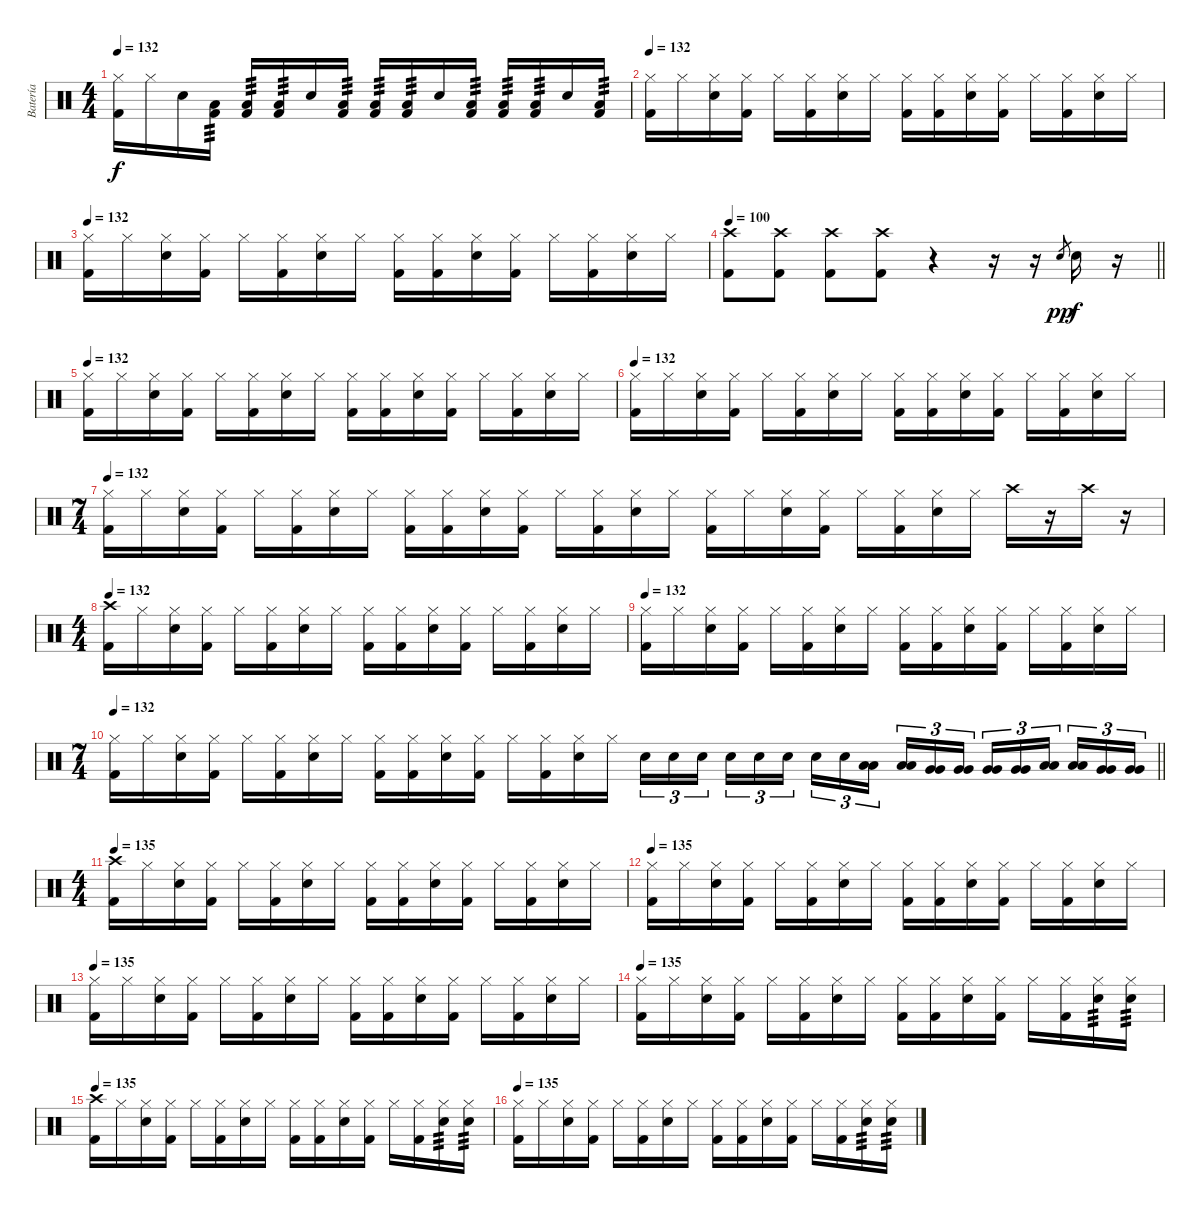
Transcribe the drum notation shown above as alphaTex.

\track ("Batería" "Batería") {instrument percussion}
\staff {score}
\articulation defaults
\ts (4 4)
\tempo 132
\clef neutral
\ks c
("Hi-Hat (closed)" "Kick (hit) 2").16{dy f} "Hi-Hat (closed)".16 "Snare (hit) 2".16 ("Low Tom (hit)" "Kick (hit) 2").16{tp 3} ("Low Tom (hit)" "Kick (hit) 2").16{tp 3} ("Low Tom (hit)" "Kick (hit) 2").16{tp 3} "Snare (hit) 2".16 ("Low Tom (hit)" "Kick (hit) 2").16{tp 3} ("Low Tom (hit)" "Kick (hit) 2").16{tp 3} ("Low Tom (hit)" "Kick (hit) 2").16{tp 3} "Snare (hit) 2".16 ("Low Tom (hit)" "Kick (hit) 2").16{tp 3} ("Low Tom (hit)" "Kick (hit) 2").16{tp 3} ("Low Tom (hit)" "Kick (hit) 2").16{tp 3} "Snare (hit) 2".16 ("Low Tom (hit)" "Kick (hit) 2").16{tp 3} |
\tempo 132
("Hi-Hat (closed)" "Kick (hit) 2").16 "Hi-Hat (closed)".16 ("Hi-Hat (closed)" "Snare (hit) 2").16 ("Hi-Hat (closed)" "Kick (hit) 2").16 "Hi-Hat (closed)".16 ("Hi-Hat (closed)" "Kick (hit) 2").16 ("Hi-Hat (closed)" "Snare (hit) 2").16 "Hi-Hat (closed)".16 ("Hi-Hat (closed)" "Kick (hit) 2").16 ("Hi-Hat (closed)" "Kick (hit) 2").16 ("Hi-Hat (closed)" "Snare (hit) 2").16 ("Hi-Hat (closed)" "Kick (hit) 2").16 "Hi-Hat (closed)".16 ("Hi-Hat (closed)" "Kick (hit) 2").16 ("Hi-Hat (closed)" "Snare (hit) 2").16 "Hi-Hat (closed)".16 |
\tempo 132
("Hi-Hat (closed)" "Kick (hit) 2").16 "Hi-Hat (closed)".16 ("Hi-Hat (closed)" "Snare (hit) 2").16 ("Hi-Hat (closed)" "Kick (hit) 2").16 "Hi-Hat (closed)".16 ("Hi-Hat (closed)" "Kick (hit) 2").16 ("Hi-Hat (closed)" "Snare (hit) 2").16 "Hi-Hat (closed)".16 ("Hi-Hat (closed)" "Kick (hit) 2").16 ("Hi-Hat (closed)" "Kick (hit) 2").16 ("Hi-Hat (closed)" "Snare (hit) 2").16 ("Hi-Hat (closed)" "Kick (hit) 2").16 "Hi-Hat (closed)".16 ("Hi-Hat (closed)" "Kick (hit) 2").16 ("Hi-Hat (closed)" "Snare (hit) 2").16 "Hi-Hat (closed)".16 |
\tempo 100
\barLineRight lightlight
("Crash high (hit)" "Kick (hit) 2").8 ("Crash high (hit)" "Kick (hit) 2").8 ("Crash high (hit)" "Kick (hit) 2").8 ("Crash high (hit)" "Kick (hit) 2").8 r.4 r.16 r.16 "Snare (hit) 2".8{gr dy pp} "Snare (hit) 2".16{dy f} r.16 |
\tempo 132
("Hi-Hat (closed)" "Kick (hit) 2").16 "Hi-Hat (closed)".16 ("Hi-Hat (closed)" "Snare (hit) 2").16 ("Hi-Hat (closed)" "Kick (hit) 2").16 "Hi-Hat (closed)".16 ("Hi-Hat (closed)" "Kick (hit) 2").16 ("Hi-Hat (closed)" "Snare (hit) 2").16 "Hi-Hat (closed)".16 ("Hi-Hat (closed)" "Kick (hit) 2").16 ("Hi-Hat (closed)" "Kick (hit) 2").16 ("Hi-Hat (closed)" "Snare (hit) 2").16 ("Hi-Hat (closed)" "Kick (hit) 2").16 "Hi-Hat (closed)".16 ("Hi-Hat (closed)" "Kick (hit) 2").16 ("Hi-Hat (closed)" "Snare (hit) 2").16 "Hi-Hat (closed)".16 |
\tempo 132
("Hi-Hat (closed)" "Kick (hit) 2").16 "Hi-Hat (closed)".16 ("Hi-Hat (closed)" "Snare (hit) 2").16 ("Hi-Hat (closed)" "Kick (hit) 2").16 "Hi-Hat (closed)".16 ("Hi-Hat (closed)" "Kick (hit) 2").16 ("Hi-Hat (closed)" "Snare (hit) 2").16 "Hi-Hat (closed)".16 ("Hi-Hat (closed)" "Kick (hit) 2").16 ("Hi-Hat (closed)" "Kick (hit) 2").16 ("Hi-Hat (closed)" "Snare (hit) 2").16 ("Hi-Hat (closed)" "Kick (hit) 2").16 "Hi-Hat (closed)".16 ("Hi-Hat (closed)" "Kick (hit) 2").16 ("Hi-Hat (closed)" "Snare (hit) 2").16 "Hi-Hat (closed)".16 |
\ts (7 4)
\tempo 132
("Hi-Hat (closed)" "Kick (hit) 2").16 "Hi-Hat (closed)".16 ("Hi-Hat (closed)" "Snare (hit) 2").16 ("Hi-Hat (closed)" "Kick (hit) 2").16 "Hi-Hat (closed)".16 ("Hi-Hat (closed)" "Kick (hit) 2").16 ("Hi-Hat (closed)" "Snare (hit) 2").16 "Hi-Hat (closed)".16 ("Hi-Hat (closed)" "Kick (hit) 2").16 ("Hi-Hat (closed)" "Kick (hit) 2").16 ("Hi-Hat (closed)" "Snare (hit) 2").16 ("Hi-Hat (closed)" "Kick (hit) 2").16 "Hi-Hat (closed)".16 ("Hi-Hat (closed)" "Kick (hit) 2").16 ("Hi-Hat (closed)" "Snare (hit) 2").16 "Hi-Hat (closed)".16 ("Hi-Hat (closed)" "Kick (hit) 2").16 "Hi-Hat (closed)".16 ("Hi-Hat (closed)" "Snare (hit) 2").16 ("Hi-Hat (closed)" "Kick (hit) 2").16 "Hi-Hat (closed)".16 ("Hi-Hat (closed)" "Kick (hit) 2").16 ("Hi-Hat (closed)" "Snare (hit) 2").16 "Hi-Hat (closed)".16 "Crash high (hit)".16 r.16 "Crash high (hit)".16 r.16 |
\ts (4 4)
\tempo 132
("Crash high (hit)" "Kick (hit) 2").16 "Hi-Hat (closed)".16 ("Hi-Hat (closed)" "Snare (hit) 2").16 ("Hi-Hat (closed)" "Kick (hit) 2").16 "Hi-Hat (closed)".16 ("Hi-Hat (closed)" "Kick (hit) 2").16 ("Hi-Hat (closed)" "Snare (hit) 2").16 "Hi-Hat (closed)".16 ("Hi-Hat (closed)" "Kick (hit) 2").16 ("Hi-Hat (closed)" "Kick (hit) 2").16 ("Hi-Hat (closed)" "Snare (hit) 2").16 ("Hi-Hat (closed)" "Kick (hit) 2").16 "Hi-Hat (closed)".16 ("Hi-Hat (closed)" "Kick (hit) 2").16 ("Hi-Hat (closed)" "Snare (hit) 2").16 "Hi-Hat (closed)".16 |
\tempo 132
("Hi-Hat (closed)" "Kick (hit) 2").16 "Hi-Hat (closed)".16 ("Hi-Hat (closed)" "Snare (hit) 2").16 ("Hi-Hat (closed)" "Kick (hit) 2").16 "Hi-Hat (closed)".16 ("Hi-Hat (closed)" "Kick (hit) 2").16 ("Hi-Hat (closed)" "Snare (hit) 2").16 "Hi-Hat (closed)".16 ("Hi-Hat (closed)" "Kick (hit) 2").16 ("Hi-Hat (closed)" "Kick (hit) 2").16 ("Hi-Hat (closed)" "Snare (hit) 2").16 ("Hi-Hat (closed)" "Kick (hit) 2").16 "Hi-Hat (closed)".16 ("Hi-Hat (closed)" "Kick (hit) 2").16 ("Hi-Hat (closed)" "Snare (hit) 2").16 "Hi-Hat (closed)".16 |
\ts (7 4)
\tempo 132
\barLineRight lightlight
("Hi-Hat (closed)" "Kick (hit) 2").16 "Hi-Hat (closed)".16 ("Hi-Hat (closed)" "Snare (hit) 2").16 ("Hi-Hat (closed)" "Kick (hit) 2").16 "Hi-Hat (closed)".16 ("Hi-Hat (closed)" "Kick (hit) 2").16 ("Hi-Hat (closed)" "Snare (hit) 2").16 "Hi-Hat (closed)".16 ("Hi-Hat (closed)" "Kick (hit) 2").16 ("Hi-Hat (closed)" "Kick (hit) 2").16 ("Hi-Hat (closed)" "Snare (hit) 2").16 ("Hi-Hat (closed)" "Kick (hit) 2").16 "Hi-Hat (closed)".16 ("Hi-Hat (closed)" "Kick (hit) 2").16 ("Hi-Hat (closed)" "Snare (hit) 2").16 "Hi-Hat (closed)".16 "Snare (hit) 2".16{tu (3 2)} "Snare (hit) 2".16{tu (3 2)} "Snare (hit) 2".16{tu (3 2)} "Snare (hit) 2".16{tu (3 2)} "Snare (hit) 2".16{tu (3 2)} "Snare (hit) 2".16{tu (3 2)} "Snare (hit) 2".16{tu (3 2)} "Snare (hit) 2".16{tu (3 2)} ("Low Tom (hit)" "Low Tom (hit)").16{tu (3 2)} ("Low Tom (hit)" "Low Tom (hit)").16{tu (3 2)} ("Very Low Tom (hit)" "Very Low Tom (hit)").16{tu (3 2)} ("Very Low Tom (hit)" "Very Low Tom (hit)").16{tu (3 2)} ("Very Low Tom (hit)" "Very Low Tom (hit)").16{tu (3 2)} ("Very Low Tom (hit)" "Very Low Tom (hit)").16{tu (3 2)} ("Low Tom (hit)" "Low Tom (hit)").16{tu (3 2)} ("Low Tom (hit)" "Low Tom (hit)").16{tu (3 2)} ("Very Low Tom (hit)" "Very Low Tom (hit)").16{tu (3 2)} ("Very Low Tom (hit)" "Very Low Tom (hit)").16{tu (3 2)} |
\ts (4 4)
\tempo 135
("Crash high (hit)" "Kick (hit) 2").16 "Hi-Hat (closed)".16 ("Hi-Hat (closed)" "Snare (hit) 2").16 ("Hi-Hat (closed)" "Kick (hit) 2").16 "Hi-Hat (closed)".16 ("Hi-Hat (closed)" "Kick (hit) 2").16 ("Hi-Hat (closed)" "Snare (hit) 2").16 "Hi-Hat (closed)".16 ("Hi-Hat (closed)" "Kick (hit) 2").16 ("Hi-Hat (closed)" "Kick (hit) 2").16 ("Hi-Hat (closed)" "Snare (hit) 2").16 ("Hi-Hat (closed)" "Kick (hit) 2").16 "Hi-Hat (closed)".16 ("Hi-Hat (closed)" "Kick (hit) 2").16 ("Hi-Hat (closed)" "Snare (hit) 2").16 "Hi-Hat (closed)".16 |
\tempo 135
("Hi-Hat (closed)" "Kick (hit) 2").16 "Hi-Hat (closed)".16 ("Hi-Hat (closed)" "Snare (hit) 2").16 ("Hi-Hat (closed)" "Kick (hit) 2").16 "Hi-Hat (closed)".16 ("Hi-Hat (closed)" "Kick (hit) 2").16 ("Hi-Hat (closed)" "Snare (hit) 2").16 "Hi-Hat (closed)".16 ("Hi-Hat (closed)" "Kick (hit) 2").16 ("Hi-Hat (closed)" "Kick (hit) 2").16 ("Hi-Hat (closed)" "Snare (hit) 2").16 ("Hi-Hat (closed)" "Kick (hit) 2").16 "Hi-Hat (closed)".16 ("Hi-Hat (closed)" "Kick (hit) 2").16 ("Hi-Hat (closed)" "Snare (hit) 2").16 "Hi-Hat (closed)".16 |
\tempo 135
("Hi-Hat (closed)" "Kick (hit) 2").16 "Hi-Hat (closed)".16 ("Hi-Hat (closed)" "Snare (hit) 2").16 ("Hi-Hat (closed)" "Kick (hit) 2").16 "Hi-Hat (closed)".16 ("Hi-Hat (closed)" "Kick (hit) 2").16 ("Hi-Hat (closed)" "Snare (hit) 2").16 "Hi-Hat (closed)".16 ("Hi-Hat (closed)" "Kick (hit) 2").16 ("Hi-Hat (closed)" "Kick (hit) 2").16 ("Hi-Hat (closed)" "Snare (hit) 2").16 ("Hi-Hat (closed)" "Kick (hit) 2").16 "Hi-Hat (closed)".16 ("Hi-Hat (closed)" "Kick (hit) 2").16 ("Hi-Hat (closed)" "Snare (hit) 2").16 "Hi-Hat (closed)".16 |
\tempo 135
("Hi-Hat (closed)" "Kick (hit) 2").16 "Hi-Hat (closed)".16 ("Hi-Hat (closed)" "Snare (hit) 2").16 ("Hi-Hat (closed)" "Kick (hit) 2").16 "Hi-Hat (closed)".16 ("Hi-Hat (closed)" "Kick (hit) 2").16 ("Hi-Hat (closed)" "Snare (hit) 2").16 "Hi-Hat (closed)".16 ("Hi-Hat (closed)" "Kick (hit) 2").16 ("Hi-Hat (closed)" "Kick (hit) 2").16 ("Hi-Hat (closed)" "Snare (hit) 2").16 ("Hi-Hat (closed)" "Kick (hit) 2").16 "Hi-Hat (closed)".16 ("Hi-Hat (closed)" "Kick (hit) 2").16 ("Hi-Hat (closed)" "Snare (hit) 2").16{tp 3} ("Hi-Hat (closed)" "Snare (hit) 2").16{tp 3} |
\tempo 135
("Crash high (hit)" "Kick (hit) 2").16 "Hi-Hat (closed)".16 ("Hi-Hat (closed)" "Snare (hit) 2").16 ("Hi-Hat (closed)" "Kick (hit) 2").16 "Hi-Hat (closed)".16 ("Hi-Hat (closed)" "Kick (hit) 2").16 ("Hi-Hat (closed)" "Snare (hit) 2").16 "Hi-Hat (closed)".16 ("Hi-Hat (closed)" "Kick (hit) 2").16 ("Hi-Hat (closed)" "Kick (hit) 2").16 ("Hi-Hat (closed)" "Snare (hit) 2").16 ("Hi-Hat (closed)" "Kick (hit) 2").16 "Hi-Hat (closed)".16 ("Hi-Hat (closed)" "Kick (hit) 2").16 ("Hi-Hat (closed)" "Snare (hit) 2").16{tp 3} ("Hi-Hat (closed)" "Snare (hit) 2").16{tp 3} |
\tempo 135
("Hi-Hat (closed)" "Kick (hit) 2").16 "Hi-Hat (closed)".16 ("Hi-Hat (closed)" "Snare (hit) 2").16 ("Hi-Hat (closed)" "Kick (hit) 2").16 "Hi-Hat (closed)".16 ("Hi-Hat (closed)" "Kick (hit) 2").16 ("Hi-Hat (closed)" "Snare (hit) 2").16 "Hi-Hat (closed)".16 ("Hi-Hat (closed)" "Kick (hit) 2").16 ("Hi-Hat (closed)" "Kick (hit) 2").16 ("Hi-Hat (closed)" "Snare (hit) 2").16 ("Hi-Hat (closed)" "Kick (hit) 2").16 "Hi-Hat (closed)".16 ("Hi-Hat (closed)" "Kick (hit) 2").16 ("Hi-Hat (closed)" "Snare (hit) 2").16{tp 3} ("Hi-Hat (closed)" "Snare (hit) 2").16{tp 3}
